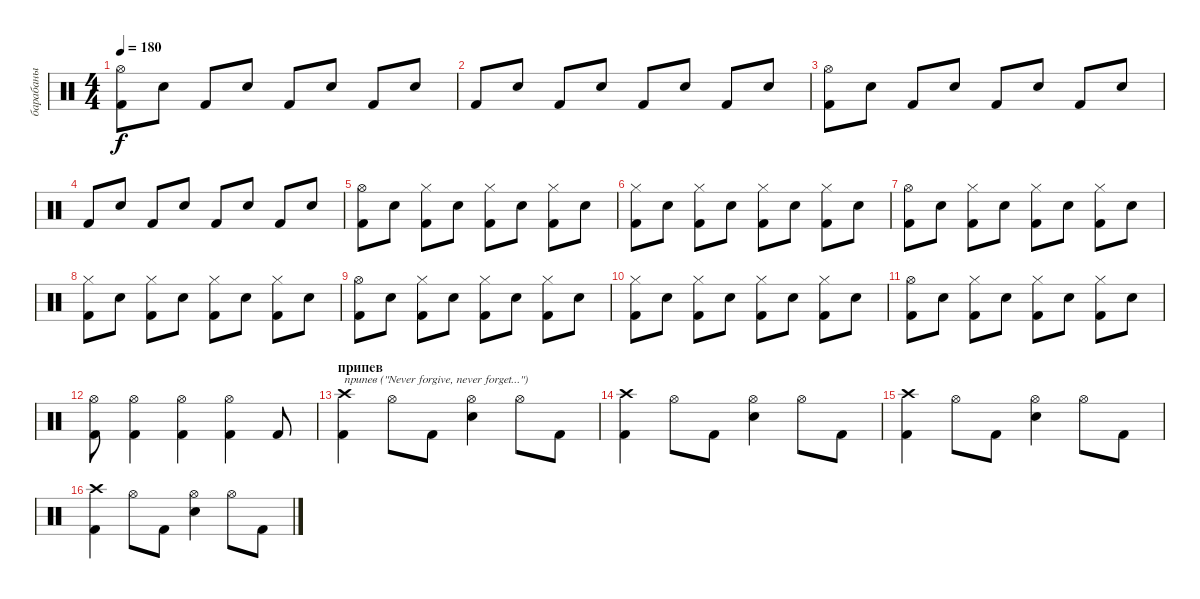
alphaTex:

\track ("барабаны" "барабаны") {instrument percussion}
\staff {score}
\articulation defaults
\ts (4 4)
\tempo 180
\clef neutral
\ks c
("Hi-Hat (open)" "Kick (hit) 2").8{dy f} "Snare (hit) 2".8 "Kick (hit) 2".8 "Snare (hit) 2".8 "Kick (hit) 2".8 "Snare (hit) 2".8 "Kick (hit) 2".8 "Snare (hit) 2".8 |
"Kick (hit) 2".8 "Snare (hit) 2".8 "Kick (hit) 2".8 "Snare (hit) 2".8 "Kick (hit) 2".8 "Snare (hit) 2".8 "Kick (hit) 2".8 "Snare (hit) 2".8 |
("Hi-Hat (open)" "Kick (hit) 2").8 "Snare (hit) 2".8 "Kick (hit) 2".8 "Snare (hit) 2".8 "Kick (hit) 2".8 "Snare (hit) 2".8 "Kick (hit) 2".8 "Snare (hit) 2".8 |
"Kick (hit) 2".8 "Snare (hit) 2".8 "Kick (hit) 2".8 "Snare (hit) 2".8 "Kick (hit) 2".8 "Snare (hit) 2".8 "Kick (hit) 2".8 "Snare (hit) 2".8 |
("Hi-Hat (open)" "Kick (hit) 2").8 "Snare (hit) 2".8 ("Hi-Hat (closed)" "Kick (hit) 2").8 "Snare (hit) 2".8 ("Hi-Hat (closed)" "Kick (hit) 2").8 "Snare (hit) 2".8 ("Hi-Hat (closed)" "Kick (hit) 2").8 "Snare (hit) 2".8 |
("Hi-Hat (closed)" "Kick (hit) 2").8 "Snare (hit) 2".8 ("Hi-Hat (closed)" "Kick (hit) 2").8 "Snare (hit) 2".8 ("Hi-Hat (closed)" "Kick (hit) 2").8 "Snare (hit) 2".8 ("Hi-Hat (closed)" "Kick (hit) 2").8 "Snare (hit) 2".8 |
("Hi-Hat (open)" "Kick (hit) 2").8 "Snare (hit) 2".8 ("Hi-Hat (closed)" "Kick (hit) 2").8 "Snare (hit) 2".8 ("Hi-Hat (closed)" "Kick (hit) 2").8 "Snare (hit) 2".8 ("Hi-Hat (closed)" "Kick (hit) 2").8 "Snare (hit) 2".8 |
("Hi-Hat (closed)" "Kick (hit) 2").8 "Snare (hit) 2".8 ("Hi-Hat (closed)" "Kick (hit) 2").8 "Snare (hit) 2".8 ("Hi-Hat (closed)" "Kick (hit) 2").8 "Snare (hit) 2".8 ("Hi-Hat (closed)" "Kick (hit) 2").8 "Snare (hit) 2".8 |
("Hi-Hat (open)" "Kick (hit) 2").8 "Snare (hit) 2".8 ("Hi-Hat (closed)" "Kick (hit) 2").8 "Snare (hit) 2".8 ("Hi-Hat (closed)" "Kick (hit) 2").8 "Snare (hit) 2".8 ("Hi-Hat (closed)" "Kick (hit) 2").8 "Snare (hit) 2".8 |
("Hi-Hat (closed)" "Kick (hit) 2").8 "Snare (hit) 2".8 ("Hi-Hat (closed)" "Kick (hit) 2").8 "Snare (hit) 2".8 ("Hi-Hat (closed)" "Kick (hit) 2").8 "Snare (hit) 2".8 ("Hi-Hat (closed)" "Kick (hit) 2").8 "Snare (hit) 2".8 |
("Hi-Hat (open)" "Kick (hit) 2").8 "Snare (hit) 2".8 ("Hi-Hat (closed)" "Kick (hit) 2").8 "Snare (hit) 2".8 ("Hi-Hat (closed)" "Kick (hit) 2").8 "Snare (hit) 2".8 ("Hi-Hat (closed)" "Kick (hit) 2").8 "Snare (hit) 2".8 |
("Hi-Hat (open)" "Kick (hit) 2").8 ("Hi-Hat (open)" "Kick (hit) 2").4 ("Hi-Hat (open)" "Kick (hit) 2").4 ("Hi-Hat (open)" "Kick (hit) 2").4 "Kick (hit) 2".8 |
\section ("" "припев")
("Crash high (hit)" "Kick (hit) 2").4{txt "припев (\"Never forgive, never forget...\")"} "Hi-Hat (open)".8 "Kick (hit) 2".8 ("Hi-Hat (open)" "Snare (hit) 2").4 "Hi-Hat (open)".8 "Kick (hit) 2".8 |
("Crash high (hit)" "Kick (hit) 2").4 "Hi-Hat (open)".8 "Kick (hit) 2".8 ("Hi-Hat (open)" "Snare (hit) 2").4 "Hi-Hat (open)".8 "Kick (hit) 2".8 |
("Crash high (hit)" "Kick (hit) 2").4 "Hi-Hat (open)".8 "Kick (hit) 2".8 ("Hi-Hat (open)" "Snare (hit) 2").4 "Hi-Hat (open)".8 "Kick (hit) 2".8 |
("Crash high (hit)" "Kick (hit) 2").4 "Hi-Hat (open)".8 "Kick (hit) 2".8 ("Hi-Hat (open)" "Snare (hit) 2").4 "Hi-Hat (open)".8 "Kick (hit) 2".8
